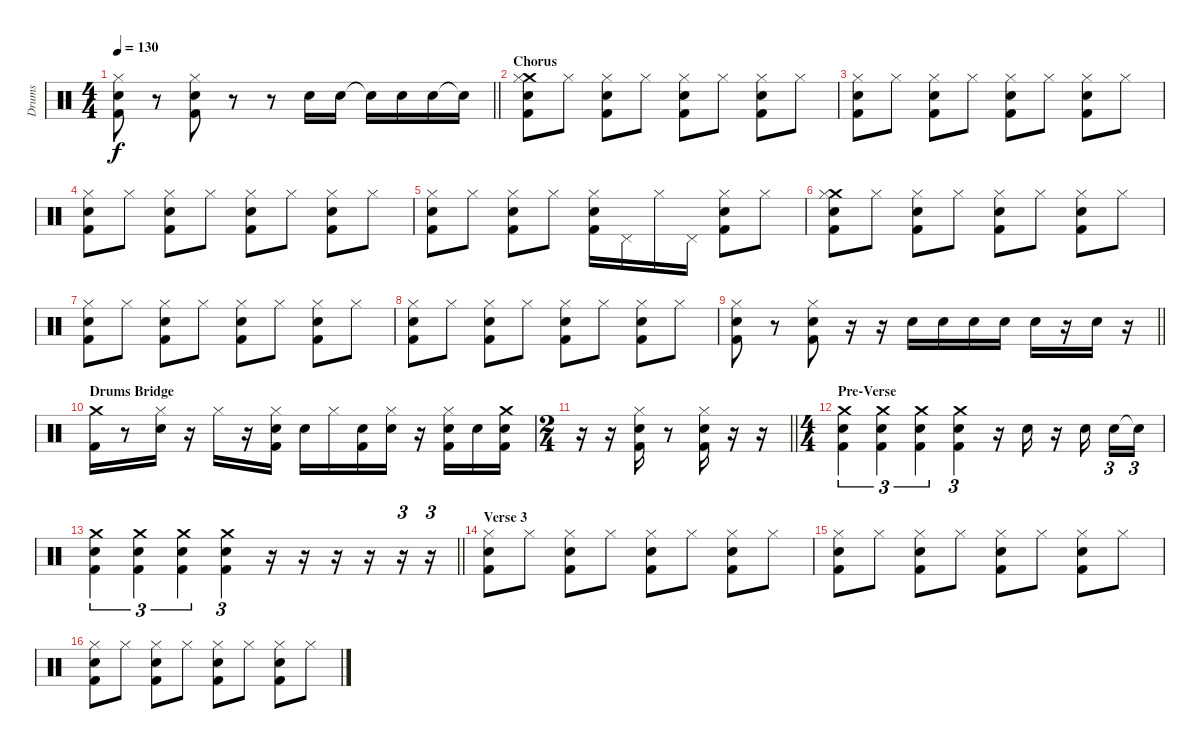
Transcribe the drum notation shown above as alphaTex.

\track ("Drums" "Drums") {instrument percussion}
\staff {score}
\articulation defaults
\ts (4 4)
\tempo 130
\clef neutral
\barLineRight lightlight
\ks c
("Hi-Hat (closed)" "Electric Snare (hit)" "Kick (hit) 2").8{dy f} r.8 ("Hi-Hat (closed)" "Electric Snare (hit)" "Kick (hit) 2").8 r.8 r.8 "Snare (hit) 2".16 "Snare (hit) 2".16 "Snare (hit) 2"{t}.16 "Snare (hit) 2".16 "Snare (hit) 2".16 "Snare (hit)"{t}.16 |
\section ("" "Chorus")
("Crash medium (hit)" "Hi-Hat (closed)" "Electric Snare (hit)" "Kick (hit) 2").8 "Hi-Hat (closed)".8 ("Hi-Hat (closed)" "Electric Snare (hit)" "Kick (hit) 2").8 "Hi-Hat (closed)".8 ("Hi-Hat (closed)" "Electric Snare (hit)" "Kick (hit) 2").8 "Hi-Hat (closed)".8 ("Hi-Hat (closed)" "Electric Snare (hit)" "Kick (hit) 2").8 "Hi-Hat (closed)".8 |
("Hi-Hat (closed)" "Electric Snare (hit)" "Kick (hit) 2").8 "Hi-Hat (closed)".8 ("Hi-Hat (closed)" "Electric Snare (hit)" "Kick (hit) 2").8 "Hi-Hat (closed)".8 ("Hi-Hat (closed)" "Electric Snare (hit)" "Kick (hit) 2").8 "Hi-Hat (closed)".8 ("Hi-Hat (closed)" "Electric Snare (hit)" "Kick (hit) 2").8 "Hi-Hat (closed)".8 |
("Hi-Hat (closed)" "Electric Snare (hit)" "Kick (hit) 2").8 "Hi-Hat (closed)".8 ("Hi-Hat (closed)" "Electric Snare (hit)" "Kick (hit) 2").8 "Hi-Hat (closed)".8 ("Hi-Hat (closed)" "Electric Snare (hit)" "Kick (hit) 2").8 "Hi-Hat (closed)".8 ("Hi-Hat (closed)" "Electric Snare (hit)" "Kick (hit) 2").8 "Hi-Hat (closed)".8 |
("Hi-Hat (closed)" "Electric Snare (hit)" "Kick (hit) 2").8 "Hi-Hat (closed)".8 ("Hi-Hat (closed)" "Electric Snare (hit)" "Kick (hit) 2").8 "Hi-Hat (closed)".8 ("Hi-Hat (closed)" "Electric Snare (hit)" "Kick (hit) 2").16 "Pedal Hi-Hat (hit)".16 "Hi-Hat (closed)".16 "Pedal Hi-Hat (hit)".16 ("Hi-Hat (closed)" "Electric Snare (hit)" "Kick (hit) 2").8 "Hi-Hat (closed)".8 |
("Crash medium (hit)" "Hi-Hat (closed)" "Electric Snare (hit)" "Kick (hit) 2").8 "Hi-Hat (closed)".8 ("Hi-Hat (closed)" "Electric Snare (hit)" "Kick (hit) 2").8 "Hi-Hat (closed)".8 ("Hi-Hat (closed)" "Electric Snare (hit)" "Kick (hit) 2").8 "Hi-Hat (closed)".8 ("Hi-Hat (closed)" "Electric Snare (hit)" "Kick (hit) 2").8 "Hi-Hat (closed)".8 |
("Hi-Hat (closed)" "Electric Snare (hit)" "Kick (hit) 2").8 "Hi-Hat (closed)".8 ("Hi-Hat (closed)" "Electric Snare (hit)" "Kick (hit) 2").8 "Hi-Hat (closed)".8 ("Hi-Hat (closed)" "Electric Snare (hit)" "Kick (hit) 2").8 "Hi-Hat (closed)".8 ("Hi-Hat (closed)" "Electric Snare (hit)" "Kick (hit) 2").8 "Hi-Hat (closed)".8 |
("Hi-Hat (closed)" "Electric Snare (hit)" "Kick (hit) 2").8 "Hi-Hat (closed)".8 ("Hi-Hat (closed)" "Electric Snare (hit)" "Kick (hit) 2").8 "Hi-Hat (closed)".8 ("Hi-Hat (closed)" "Electric Snare (hit)" "Kick (hit) 2").8 "Hi-Hat (closed)".8 ("Hi-Hat (closed)" "Electric Snare (hit)" "Kick (hit) 2").8 "Hi-Hat (closed)".8 |
\barLineRight lightlight
("Hi-Hat (closed)" "Electric Snare (hit)" "Kick (hit) 2").8 r.8 ("Hi-Hat (closed)" "Electric Snare (hit)" "Kick (hit) 2").8 r.16 r.16 "Snare (hit) 2".16 "Snare (hit) 2".16 "Snare (hit) 2".16 "Snare (hit) 2".16 "Snare (hit) 2".16 r.16 "Snare (hit) 2".16 r.16 |
\section ("" "Drums Bridge")
("Crash medium (hit)" "Kick (hit) 2").16 r.8 ("Hi-Hat (closed)" "Electric Snare (hit)").16 r.16 "Hi-Hat (closed)".16 r.16 ("Hi-Hat (closed)" "Electric Snare (hit)" "Kick (hit) 2").16 "Electric Snare (hit)".16 "Hi-Hat (closed)".16 ("Electric Snare (hit)" "Kick (hit) 2").16 ("Hi-Hat (closed)" "Electric Snare (hit)").16 r.16 ("Hi-Hat (closed)" "Electric Snare (hit)" "Kick (hit) 2").16 "Electric Snare (hit)".16 ("Crash medium (hit)" "Electric Snare (hit)" "Kick (hit) 2").16 |
\ts (2 4)
\barLineRight lightlight
r.16 r.16 ("Hi-Hat (closed)" "Electric Snare (hit)" "Kick (hit) 2").16 r.8 ("Hi-Hat (closed)" "Electric Snare (hit)" "Kick (hit) 2").16 r.16 r.16 |
\ts (4 4)
\section ("" "Pre-Verse")
("Crash medium (hit)" "Electric Snare (hit)" "Kick (hit) 2").4{tu (3 2)} ("Crash medium (hit)" "Electric Snare (hit)" "Kick (hit) 2").4{tu (3 2)} ("Crash medium (hit)" "Electric Snare (hit)" "Kick (hit) 2").4{tu (3 2)} ("Crash medium (hit)" "Electric Snare (hit)" "Kick (hit) 2").4{tu (3 2)} r.16 "Snare (hit) 2".16 r.16 "Snare (hit) 2".16{beam splitsecondary} "Snare (hit) 2".16{tu (3 2)} "Snare (hit)"{t}.16{tu (3 2)} |
\barLineRight lightlight
("Crash medium (hit)" "Electric Snare (hit)" "Kick (hit) 2").4{tu (3 2)} ("Crash medium (hit)" "Electric Snare (hit)" "Kick (hit) 2").4{tu (3 2)} ("Crash medium (hit)" "Electric Snare (hit)" "Kick (hit) 2").4{tu (3 2)} ("Crash medium (hit)" "Electric Snare (hit)" "Kick (hit) 2").4{tu (3 2)} r.16 r.16 r.16 r.16 r.16{tu (3 2)} r.16{tu (3 2)} |
\section ("" "Verse 3")
("Hi-Hat (closed)" "Electric Snare (hit)" "Kick (hit) 2").8 "Hi-Hat (closed)".8 ("Hi-Hat (closed)" "Electric Snare (hit)" "Kick (hit) 2").8 "Hi-Hat (closed)".8 ("Hi-Hat (closed)" "Electric Snare (hit)" "Kick (hit) 2").8 "Hi-Hat (closed)".8 ("Hi-Hat (closed)" "Electric Snare (hit)" "Kick (hit) 2").8 "Hi-Hat (closed)".8 |
("Hi-Hat (closed)" "Electric Snare (hit)" "Kick (hit) 2").8 "Hi-Hat (closed)".8 ("Hi-Hat (closed)" "Electric Snare (hit)" "Kick (hit) 2").8 "Hi-Hat (closed)".8 ("Hi-Hat (closed)" "Electric Snare (hit)" "Kick (hit) 2").8 "Hi-Hat (closed)".8 ("Hi-Hat (closed)" "Electric Snare (hit)" "Kick (hit) 2").8 "Hi-Hat (closed)".8 |
("Hi-Hat (closed)" "Electric Snare (hit)" "Kick (hit) 2").8 "Hi-Hat (closed)".8 ("Hi-Hat (closed)" "Electric Snare (hit)" "Kick (hit) 2").8 "Hi-Hat (closed)".8 ("Hi-Hat (closed)" "Electric Snare (hit)" "Kick (hit) 2").8 "Hi-Hat (closed)".8 ("Hi-Hat (closed)" "Electric Snare (hit)" "Kick (hit) 2").8 "Hi-Hat (closed)".8
